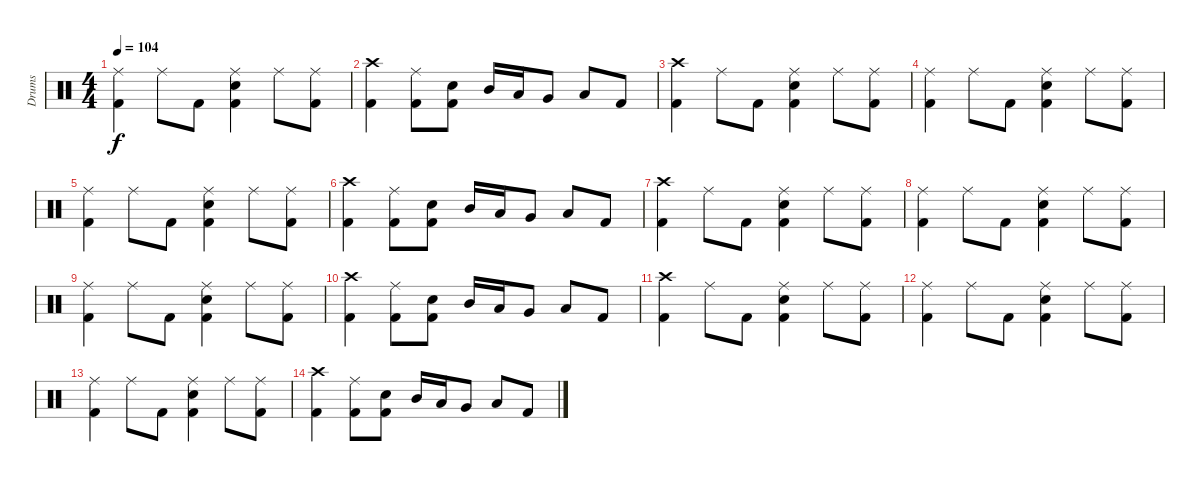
\track ("Drums" "Drums") {instrument percussion}
\staff {score}
\articulation defaults
\ts (4 4)
\tempo 104
\clef neutral
\ks c
("Ride (middle)" "Kick (hit) 2").4{dy f} "Ride (middle)".8 "Kick (hit) 2".8 ("Ride (middle)" "Snare (hit) 2" "Kick (hit) 2").4 "Ride (middle)".8 ("Ride (middle)" "Kick (hit) 2").8 |
("Crash high (hit)" "Kick (hit) 2").4 ("Ride (middle)" "Kick (hit) 2").8 ("Snare (hit) 2" "Kick (hit) 2").8 "Mid Tom (hit)".16 "Low Tom (hit)".16 "Very Low Tom (hit)".8 "Low Floor Tom (hit)".8 "Kick (hit) 2".8 |
("Crash high (hit)" "Kick (hit) 2").4 "Ride (middle)".8 "Kick (hit) 2".8 ("Ride (middle)" "Snare (hit) 2" "Kick (hit) 2").4 "Ride (middle)".8 ("Ride (middle)" "Kick (hit) 2").8 |
("Ride (middle)" "Kick (hit) 2").4 "Ride (middle)".8 "Kick (hit) 2".8 ("Ride (middle)" "Snare (hit) 2" "Kick (hit) 2").4 "Ride (middle)".8 ("Ride (middle)" "Kick (hit) 2").8 |
("Ride (middle)" "Kick (hit) 2").4 "Ride (middle)".8 "Kick (hit) 2".8 ("Ride (middle)" "Snare (hit) 2" "Kick (hit) 2").4 "Ride (middle)".8 ("Ride (middle)" "Kick (hit) 2").8 |
("Crash high (hit)" "Kick (hit) 2").4 ("Ride (middle)" "Kick (hit) 2").8 ("Snare (hit) 2" "Kick (hit) 2").8 "Mid Tom (hit)".16 "Low Tom (hit)".16 "Very Low Tom (hit)".8 "Low Floor Tom (hit)".8 "Kick (hit) 2".8 |
("Crash high (hit)" "Kick (hit) 2").4 "Ride (middle)".8 "Kick (hit) 2".8 ("Ride (middle)" "Snare (hit) 2" "Kick (hit) 2").4 "Ride (middle)".8 ("Ride (middle)" "Kick (hit) 2").8 |
("Ride (middle)" "Kick (hit) 2").4 "Ride (middle)".8 "Kick (hit) 2".8 ("Ride (middle)" "Snare (hit) 2" "Kick (hit) 2").4 "Ride (middle)".8 ("Ride (middle)" "Kick (hit) 2").8 |
("Ride (middle)" "Kick (hit) 2").4 "Ride (middle)".8 "Kick (hit) 2".8 ("Ride (middle)" "Snare (hit) 2" "Kick (hit) 2").4 "Ride (middle)".8 ("Ride (middle)" "Kick (hit) 2").8 |
("Crash high (hit)" "Kick (hit) 2").4 ("Ride (middle)" "Kick (hit) 2").8 ("Snare (hit) 2" "Kick (hit) 2").8 "Mid Tom (hit)".16 "Low Tom (hit)".16 "Very Low Tom (hit)".8 "Low Floor Tom (hit)".8 "Kick (hit) 2".8 |
("Crash high (hit)" "Kick (hit) 2").4 "Ride (middle)".8 "Kick (hit) 2".8 ("Ride (middle)" "Snare (hit) 2" "Kick (hit) 2").4 "Ride (middle)".8 ("Ride (middle)" "Kick (hit) 2").8 |
("Ride (middle)" "Kick (hit) 2").4 "Ride (middle)".8 "Kick (hit) 2".8 ("Ride (middle)" "Snare (hit) 2" "Kick (hit) 2").4 "Ride (middle)".8 ("Ride (middle)" "Kick (hit) 2").8 |
("Ride (middle)" "Kick (hit) 2").4 "Ride (middle)".8 "Kick (hit) 2".8 ("Ride (middle)" "Snare (hit) 2" "Kick (hit) 2").4 "Ride (middle)".8 ("Ride (middle)" "Kick (hit) 2").8 |
("Crash high (hit)" "Kick (hit) 2").4 ("Ride (middle)" "Kick (hit) 2").8 ("Snare (hit) 2" "Kick (hit) 2").8 "Mid Tom (hit)".16 "Low Tom (hit)".16 "Very Low Tom (hit)".8 "Low Floor Tom (hit)".8 "Kick (hit) 2".8
